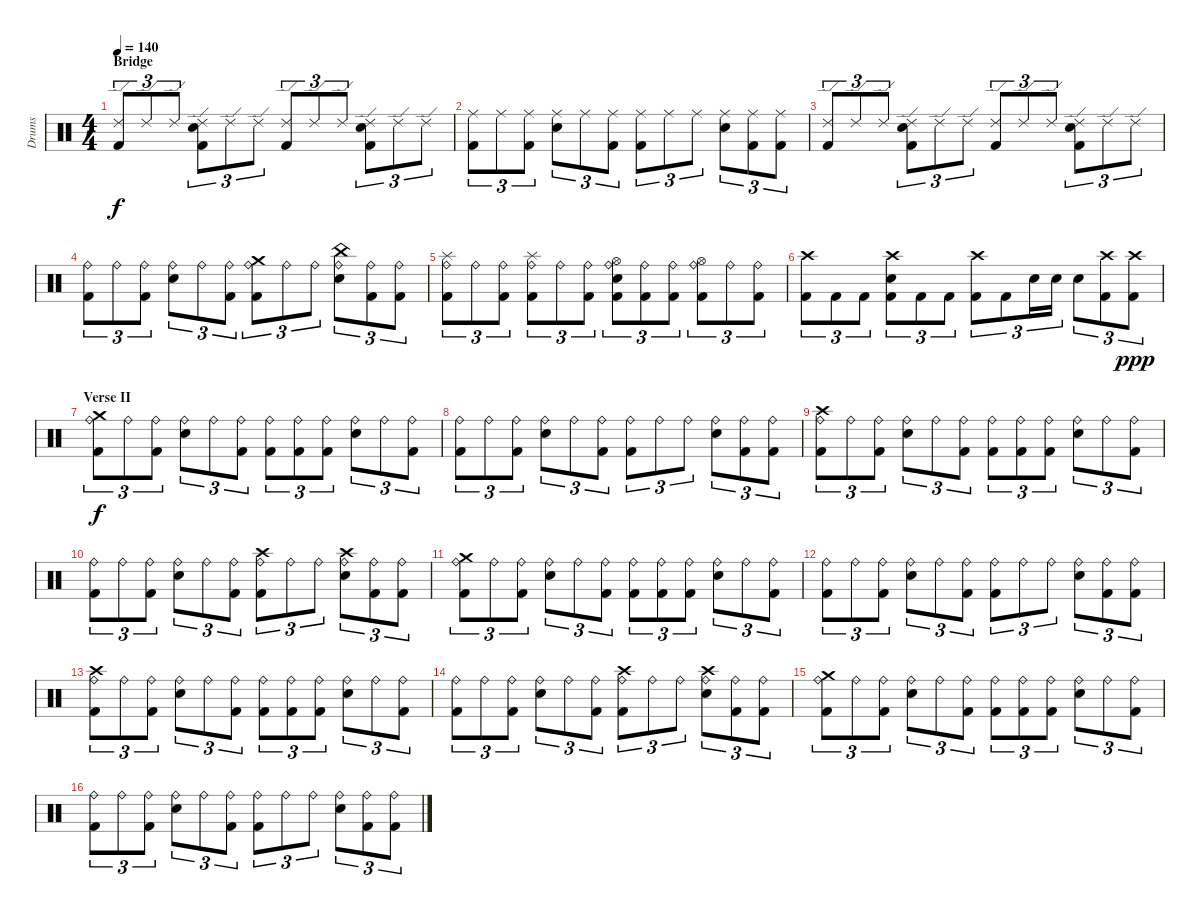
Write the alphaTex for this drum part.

\track ("Drums" "Drums") {instrument percussion}
\staff {score}
\articulation defaults
\ts (4 4)
\section ("" "Bridge")
\tempo 140
\clef neutral
\ks c
("Ride (edge) 2" "Kick (hit) 2").8{tu (3 2) dy f} "Ride (edge) 2".8{tu (3 2)} "Ride (edge) 2".8{tu (3 2)} ("Ride (edge) 2" "Kick (hit) 2" "Electric Snare (hit)").8{tu (3 2)} "Ride (edge) 2".8{tu (3 2)} "Ride (edge) 2".8{tu (3 2)} ("Ride (edge) 2" "Kick (hit) 2").8{tu (3 2)} "Ride (edge) 2".8{tu (3 2)} "Ride (edge) 2".8{tu (3 2)} ("Ride (edge) 2" "Kick (hit) 2" "Electric Snare (hit)").8{tu (3 2)} "Ride (edge) 2".8{tu (3 2)} "Ride (edge) 2".8{tu (3 2)} |
("Ride (middle)" "Kick (hit) 2").8{tu (3 2)} "Ride (middle)".8{tu (3 2)} ("Ride (middle)" "Kick (hit) 2").8{tu (3 2)} ("Ride (middle)" "Electric Snare (hit)").8{tu (3 2)} "Ride (middle)".8{tu (3 2)} ("Ride (middle)" "Kick (hit) 2").8{tu (3 2)} ("Ride (middle)" "Kick (hit) 2").8{tu (3 2)} "Ride (middle)".8{tu (3 2)} "Ride (middle)".8{tu (3 2)} ("Ride (middle)" "Electric Snare (hit)").8{tu (3 2)} ("Ride (middle)" "Kick (hit) 2").8{tu (3 2)} ("Ride (middle)" "Kick (hit) 2").8{tu (3 2)} |
("Ride (edge) 2" "Kick (hit) 2").8{tu (3 2)} "Ride (edge) 2".8{tu (3 2)} "Ride (edge) 2".8{tu (3 2)} ("Ride (edge) 2" "Kick (hit) 2" "Electric Snare (hit)").8{tu (3 2)} "Ride (edge) 2".8{tu (3 2)} "Ride (edge) 2".8{tu (3 2)} ("Ride (edge) 2" "Kick (hit) 2").8{tu (3 2)} "Ride (edge) 2".8{tu (3 2)} "Ride (edge) 2".8{tu (3 2)} ("Ride (edge) 2" "Kick (hit) 2" "Electric Snare (hit)").8{tu (3 2)} "Ride (edge) 2".8{tu (3 2)} "Ride (edge) 2".8{tu (3 2)} |
("Ride (bell)" "Kick (hit) 2").8{tu (3 2)} "Ride (bell)".8{tu (3 2)} ("Ride (bell)" "Kick (hit) 2").8{tu (3 2)} ("Ride (bell)" "Electric Snare (hit)").8{tu (3 2)} "Ride (bell)".8{tu (3 2)} ("Ride (bell)" "Kick (hit) 2").8{tu (3 2)} ("Ride (bell)" "Crash medium (hit)" "Kick (hit) 2").8{tu (3 2)} "Ride (bell)".8{tu (3 2)} "Ride (bell)".8{tu (3 2)} ("Ride (bell)" "China (hit)" "Electric Snare (hit)").8{tu (3 2)} ("Ride (bell)" "Kick (hit) 2").8{tu (3 2)} ("Ride (bell)" "Kick (hit) 2").8{tu (3 2)} |
("Ride (bell)" "Splash (hit)" "Kick (hit) 2").8{tu (3 2)} "Ride (bell)".8{tu (3 2)} ("Ride (bell)" "Kick (hit) 2").8{tu (3 2)} ("Ride (bell)" "Splash (hit)" "Kick (hit) 2").8{tu (3 2)} "Ride (bell)".8{tu (3 2)} ("Ride (bell)" "Kick (hit) 2").8{tu (3 2)} ("Ride (bell)" "Hi-Hat (open)" "Kick (hit) 2" "Electric Snare (hit)").8{tu (3 2)} ("Ride (bell)" "Kick (hit) 2").8{tu (3 2)} ("Ride (bell)" "Kick (hit) 2").8{tu (3 2)} ("Ride (bell)" "Hi-Hat (open)" "Kick (hit) 2").8{tu (3 2)} "Ride (bell)".8{tu (3 2)} ("Ride (bell)" "Kick (hit) 2").8{tu (3 2)} |
("Crash high (hit)" "Kick (hit) 2").8{tu (3 2)} "Kick (hit) 2".8{tu (3 2)} "Kick (hit) 2".8{tu (3 2)} ("Crash high (hit)" "Electric Snare (hit)" "Kick (hit) 2").8{tu (3 2)} "Kick (hit) 2".8{tu (3 2)} "Kick (hit) 2".8{tu (3 2)} ("Crash high (hit)" "Kick (hit) 2").8{tu (3 2)} "Kick (hit) 2".8{tu (3 2)} "Electric Snare (hit)".16{tu (3 2)} "Electric Snare (hit)".16{tu (3 2)} "Electric Snare (hit)".8{tu (3 2)} ("Kick (hit) 2" "Crash high (hit)").8{tu (3 2)} ("Kick (hit) 2" "Crash high (hit)").8{tu (3 2) dy ppp} |
\section ("" "Verse II")
("Ride (bell)" "Kick (hit) 2" "Crash medium (hit)").8{tu (3 2) dy f} "Ride (bell)".8{tu (3 2)} ("Ride (bell)" "Kick (hit) 2").8{tu (3 2)} ("Ride (bell)" "Electric Snare (hit)").8{tu (3 2)} "Ride (bell)".8{tu (3 2)} ("Ride (bell)" "Kick (hit) 2").8{tu (3 2)} ("Ride (bell)" "Kick (hit) 2").8{tu (3 2)} ("Ride (bell)" "Kick (hit) 2").8{tu (3 2)} ("Ride (bell)" "Kick (hit) 2").8{tu (3 2)} ("Ride (bell)" "Electric Snare (hit)").8{tu (3 2)} "Ride (bell)".8{tu (3 2)} ("Ride (bell)" "Kick (hit) 2").8{tu (3 2)} |
("Ride (bell)" "Kick (hit) 2").8{tu (3 2)} "Ride (bell)".8{tu (3 2)} ("Ride (bell)" "Kick (hit) 2").8{tu (3 2)} ("Ride (bell)" "Electric Snare (hit)").8{tu (3 2)} "Ride (bell)".8{tu (3 2)} ("Ride (bell)" "Kick (hit) 2").8{tu (3 2)} ("Ride (bell)" "Kick (hit) 2").8{tu (3 2)} "Ride (bell)".8{tu (3 2)} "Ride (bell)".8{tu (3 2)} ("Ride (bell)" "Electric Snare (hit)").8{tu (3 2)} ("Ride (bell)" "Kick (hit) 2").8{tu (3 2)} ("Ride (bell)" "Kick (hit) 2").8{tu (3 2)} |
("Ride (bell)" "Kick (hit) 2" "Crash high (hit)").8{tu (3 2)} "Ride (bell)".8{tu (3 2)} ("Ride (bell)" "Kick (hit) 2").8{tu (3 2)} ("Ride (bell)" "Electric Snare (hit)").8{tu (3 2)} "Ride (bell)".8{tu (3 2)} ("Ride (bell)" "Kick (hit) 2").8{tu (3 2)} ("Ride (bell)" "Kick (hit) 2").8{tu (3 2)} ("Ride (bell)" "Kick (hit) 2").8{tu (3 2)} ("Ride (bell)" "Kick (hit) 2").8{tu (3 2)} ("Ride (bell)" "Electric Snare (hit)").8{tu (3 2)} "Ride (bell)".8{tu (3 2)} ("Ride (bell)" "Kick (hit) 2").8{tu (3 2)} |
("Ride (bell)" "Kick (hit) 2").8{tu (3 2)} "Ride (bell)".8{tu (3 2)} ("Ride (bell)" "Kick (hit) 2").8{tu (3 2)} ("Ride (bell)" "Electric Snare (hit)").8{tu (3 2)} "Ride (bell)".8{tu (3 2)} ("Ride (bell)" "Kick (hit) 2").8{tu (3 2)} ("Ride (bell)" "Crash high (hit)" "Kick (hit) 2").8{tu (3 2)} "Ride (bell)".8{tu (3 2)} "Ride (bell)".8{tu (3 2)} ("Ride (bell)" "Crash high (hit)" "Electric Snare (hit)").8{tu (3 2)} ("Ride (bell)" "Kick (hit) 2").8{tu (3 2)} ("Ride (bell)" "Kick (hit) 2").8{tu (3 2)} |
("Ride (bell)" "Kick (hit) 2" "Crash medium (hit)").8{tu (3 2)} "Ride (bell)".8{tu (3 2)} ("Ride (bell)" "Kick (hit) 2").8{tu (3 2)} ("Ride (bell)" "Electric Snare (hit)").8{tu (3 2)} "Ride (bell)".8{tu (3 2)} ("Ride (bell)" "Kick (hit) 2").8{tu (3 2)} ("Ride (bell)" "Kick (hit) 2").8{tu (3 2)} ("Ride (bell)" "Kick (hit) 2").8{tu (3 2)} ("Ride (bell)" "Kick (hit) 2").8{tu (3 2)} ("Ride (bell)" "Electric Snare (hit)").8{tu (3 2)} "Ride (bell)".8{tu (3 2)} ("Ride (bell)" "Kick (hit) 2").8{tu (3 2)} |
("Ride (bell)" "Kick (hit) 2").8{tu (3 2)} "Ride (bell)".8{tu (3 2)} ("Ride (bell)" "Kick (hit) 2").8{tu (3 2)} ("Ride (bell)" "Electric Snare (hit)").8{tu (3 2)} "Ride (bell)".8{tu (3 2)} ("Ride (bell)" "Kick (hit) 2").8{tu (3 2)} ("Ride (bell)" "Kick (hit) 2").8{tu (3 2)} "Ride (bell)".8{tu (3 2)} "Ride (bell)".8{tu (3 2)} ("Ride (bell)" "Electric Snare (hit)").8{tu (3 2)} ("Ride (bell)" "Kick (hit) 2").8{tu (3 2)} ("Ride (bell)" "Kick (hit) 2").8{tu (3 2)} |
("Ride (bell)" "Kick (hit) 2" "Crash high (hit)").8{tu (3 2)} "Ride (bell)".8{tu (3 2)} ("Ride (bell)" "Kick (hit) 2").8{tu (3 2)} ("Ride (bell)" "Electric Snare (hit)").8{tu (3 2)} "Ride (bell)".8{tu (3 2)} ("Ride (bell)" "Kick (hit) 2").8{tu (3 2)} ("Ride (bell)" "Kick (hit) 2").8{tu (3 2)} ("Ride (bell)" "Kick (hit) 2").8{tu (3 2)} ("Ride (bell)" "Kick (hit) 2").8{tu (3 2)} ("Ride (bell)" "Electric Snare (hit)").8{tu (3 2)} "Ride (bell)".8{tu (3 2)} ("Ride (bell)" "Kick (hit) 2").8{tu (3 2)} |
("Ride (bell)" "Kick (hit) 2").8{tu (3 2)} "Ride (bell)".8{tu (3 2)} ("Ride (bell)" "Kick (hit) 2").8{tu (3 2)} ("Ride (bell)" "Electric Snare (hit)").8{tu (3 2)} "Ride (bell)".8{tu (3 2)} ("Ride (bell)" "Kick (hit) 2").8{tu (3 2)} ("Ride (bell)" "Crash high (hit)" "Kick (hit) 2").8{tu (3 2)} "Ride (bell)".8{tu (3 2)} "Ride (bell)".8{tu (3 2)} ("Ride (bell)" "Crash high (hit)" "Electric Snare (hit)").8{tu (3 2)} ("Ride (bell)" "Kick (hit) 2").8{tu (3 2)} ("Ride (bell)" "Kick (hit) 2").8{tu (3 2)} |
("Ride (bell)" "Kick (hit) 2" "Crash medium (hit)").8{tu (3 2)} "Ride (bell)".8{tu (3 2)} ("Ride (bell)" "Kick (hit) 2").8{tu (3 2)} ("Ride (bell)" "Electric Snare (hit)").8{tu (3 2)} "Ride (bell)".8{tu (3 2)} ("Ride (bell)" "Kick (hit) 2").8{tu (3 2)} ("Ride (bell)" "Kick (hit) 2").8{tu (3 2)} ("Ride (bell)" "Kick (hit) 2").8{tu (3 2)} ("Ride (bell)" "Kick (hit) 2").8{tu (3 2)} ("Ride (bell)" "Electric Snare (hit)").8{tu (3 2)} "Ride (bell)".8{tu (3 2)} ("Ride (bell)" "Kick (hit) 2").8{tu (3 2)} |
("Ride (bell)" "Kick (hit) 2").8{tu (3 2)} "Ride (bell)".8{tu (3 2)} ("Ride (bell)" "Kick (hit) 2").8{tu (3 2)} ("Ride (bell)" "Electric Snare (hit)").8{tu (3 2)} "Ride (bell)".8{tu (3 2)} ("Ride (bell)" "Kick (hit) 2").8{tu (3 2)} ("Ride (bell)" "Kick (hit) 2").8{tu (3 2)} "Ride (bell)".8{tu (3 2)} "Ride (bell)".8{tu (3 2)} ("Ride (bell)" "Electric Snare (hit)").8{tu (3 2)} ("Ride (bell)" "Kick (hit) 2").8{tu (3 2)} ("Ride (bell)" "Kick (hit) 2").8{tu (3 2)}
